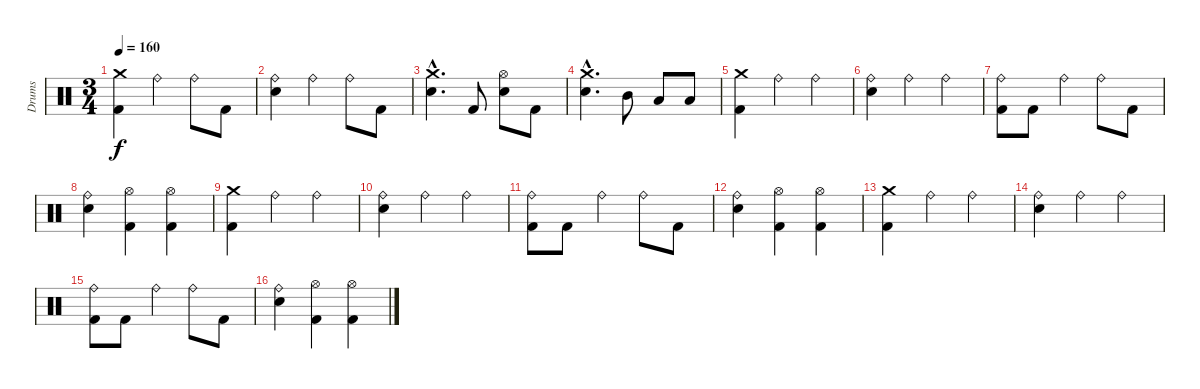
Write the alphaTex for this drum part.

\track ("Drums" "Drums") {instrument percussion}
\staff {score}
\articulation defaults
\ts (3 4)
\tempo 160
\clef neutral
\ks c
("Crash medium (hit)" "Kick (hit) 2").4{dy f} "Ride (bell)".4 "Ride (bell)".8 "Kick (hit) 2".8 |
("Ride (bell)" "Snare (hit) 2").4 "Ride (bell)".4 "Ride (bell)".8 "Kick (hit) 2".8 |
("Crash medium (hit)"{hac} "Snare (hit) 2"{hac}).4{d} "Kick (hit) 2".8 ("Hi-Hat (open)" "Snare (hit) 2").8 "Kick (hit) 2".8 |
("Crash medium (hit)"{hac} "Snare (hit) 2"{hac}).4{d} "Mid Tom (hit)".8 "Low Tom (hit)".8 "Low Floor Tom (hit)".8 |
("Crash medium (hit)" "Kick (hit) 2").4 "Ride (bell)".4 "Ride (bell)".4 |
("Ride (bell)" "Snare (hit) 2").4 "Ride (bell)".4 "Ride (bell)".4 |
("Ride (bell)" "Kick (hit) 2").8 "Kick (hit) 2".8 "Ride (bell)".4 "Ride (bell)".8 "Kick (hit) 2".8 |
("Ride (bell)" "Snare (hit) 2").4 ("Hi-Hat (open)" "Kick (hit) 2").4 ("Hi-Hat (open)" "Kick (hit) 2").4 |
("Crash medium (hit)" "Kick (hit) 2").4 "Ride (bell)".4 "Ride (bell)".4 |
("Ride (bell)" "Snare (hit) 2").4 "Ride (bell)".4 "Ride (bell)".4 |
("Ride (bell)" "Kick (hit) 2").8 "Kick (hit) 2".8 "Ride (bell)".4 "Ride (bell)".8 "Kick (hit) 2".8 |
("Ride (bell)" "Snare (hit) 2").4 ("Hi-Hat (open)" "Kick (hit) 2").4 ("Hi-Hat (open)" "Kick (hit) 2").4 |
("Crash medium (hit)" "Kick (hit) 2").4 "Ride (bell)".4 "Ride (bell)".4 |
("Ride (bell)" "Snare (hit) 2").4 "Ride (bell)".4 "Ride (bell)".4 |
("Ride (bell)" "Kick (hit) 2").8 "Kick (hit) 2".8 "Ride (bell)".4 "Ride (bell)".8 "Kick (hit) 2".8 |
("Ride (bell)" "Snare (hit) 2").4 ("Hi-Hat (open)" "Kick (hit) 2").4 ("Hi-Hat (open)" "Kick (hit) 2").4
